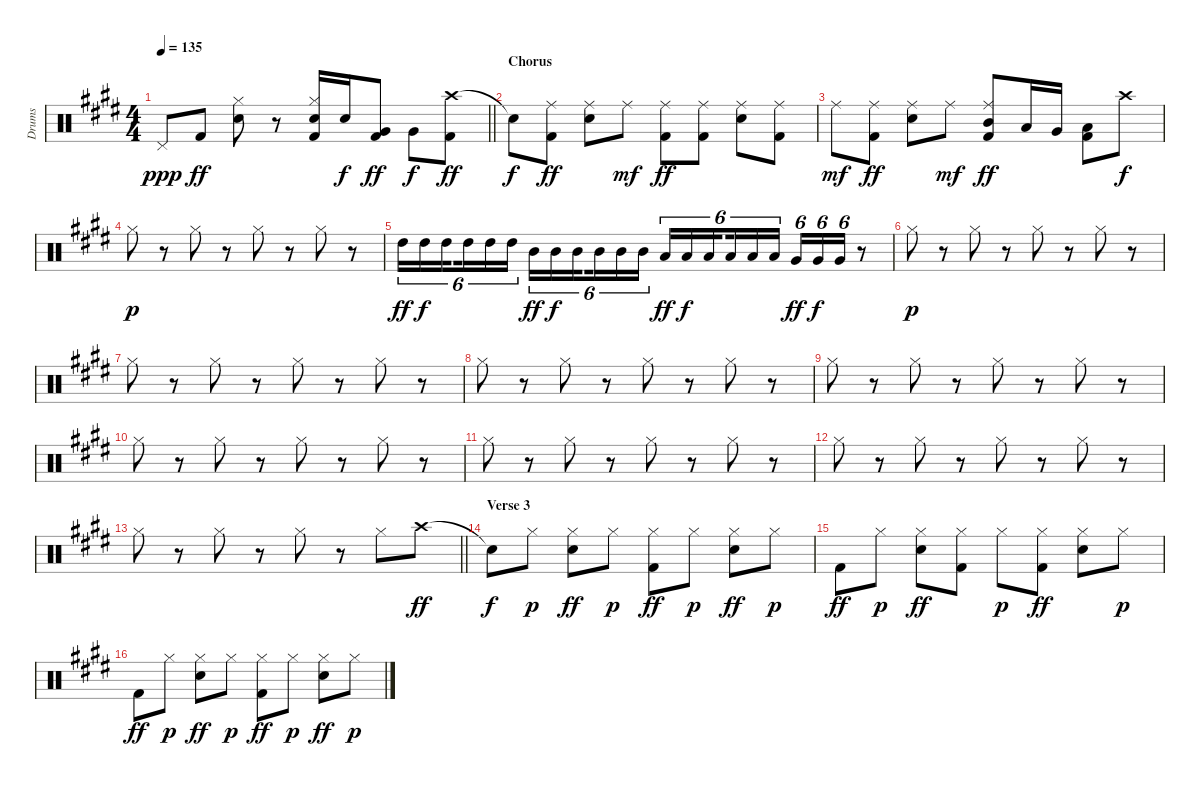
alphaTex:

\track ("Drums" "Drums") {instrument percussion}
\staff {score}
\articulation defaults
\ts (4 4)
\tempo 135
\clef neutral
\barLineRight lightlight
\ks e "Pedal Hi-Hat (hit)".8{dy ppp} "Kick (hit) 2".8{dy ff}
("Hi-Hat (closed)" "Snare (hit) 2").8 r.8 ("Hi-Hat (closed)" "Snare (hit) 2" "Kick (hit) 2").16 "Snare (hit) 2".16{dy f} ("Very Low Tom (hit)" "Kick (hit) 2").8{dy ff} "Very Low Tom (hit)".8{dy f} ("Crash high (hit)" "Kick (hit) 2").8{dy ff} |
\section ("" "Chorus")
"Snare (hit)"{t}.8{dy f} ("Ride (middle)" "Kick (hit) 2").8{dy ff} ("Ride (middle)" "Snare (hit) 2").8 "Ride (middle)".8{dy mf} ("Ride (middle)" "Kick (hit) 2").8{dy ff} ("Ride (middle)" "Kick (hit) 2").8 ("Ride (middle)" "Snare (hit) 2").8 ("Ride (middle)" "Kick (hit) 2").8 |
"Ride (middle)".8{dy mf} ("Ride (middle)" "Kick (hit) 2").8{dy ff} ("Ride (middle)" "Snare (hit) 2").8 "Ride (middle)".8{dy mf} ("Ride (middle)" "Mid Tom (hit)" "Kick (hit) 2").8{dy ff} "Low Tom (hit)".16 "Very Low Tom (hit)".16 ("Low Floor Tom (hit)" "Kick (hit) 2").8 "Crash high (hit)".8{dy f} |
"Hi-Hat (closed)".8{dy p} r.8 "Hi-Hat (closed)".8 r.8 "Hi-Hat (closed)".8 r.8 "Hi-Hat (closed)".8 r.8 |
"High Tom (hit)".16{tu (6 4) dy ff} "High Tom (hit)".16{tu (6 4) dy f} "High Tom (hit)".16{tu (6 4) beam splitsecondary} "High Tom (hit)".16{tu (6 4)} "High Tom (hit)".16{tu (6 4)} "High Tom (hit)".16{tu (6 4)} "Mid Tom (hit)".16{tu (6 4) dy ff} "Mid Tom (hit)".16{tu (6 4) dy f} "Mid Tom (hit)".16{tu (6 4) beam splitsecondary} "Mid Tom (hit)".16{tu (6 4)} "Mid Tom (hit)".16{tu (6 4)} "Mid Tom (hit)".16{tu (6 4)} "Low Tom (hit)".16{tu (6 4) dy ff} "Low Tom (hit)".16{tu (6 4) dy f} "Low Tom (hit)".16{tu (6 4) beam splitsecondary} "Low Tom (hit)".16{tu (6 4)} "Low Tom (hit)".16{tu (6 4)} "Low Tom (hit)".16{tu (6 4)} "Very Low Tom (hit)".16{tu (6 4) dy ff} "Very Low Tom (hit)".16{tu (6 4) dy f} "Very Low Tom (hit)".16{tu (6 4)} r.8 |
"Hi-Hat (closed)".8{dy p} r.8 "Hi-Hat (closed)".8 r.8 "Hi-Hat (closed)".8 r.8 "Hi-Hat (closed)".8 r.8 |
"Hi-Hat (closed)".8 r.8 "Hi-Hat (closed)".8 r.8 "Hi-Hat (closed)".8 r.8 "Hi-Hat (closed)".8 r.8 |
"Hi-Hat (closed)".8 r.8 "Hi-Hat (closed)".8 r.8 "Hi-Hat (closed)".8 r.8 "Hi-Hat (closed)".8 r.8 |
"Hi-Hat (closed)".8 r.8 "Hi-Hat (closed)".8 r.8 "Hi-Hat (closed)".8 r.8 "Hi-Hat (closed)".8 r.8 |
"Hi-Hat (closed)".8 r.8 "Hi-Hat (closed)".8 r.8 "Hi-Hat (closed)".8 r.8 "Hi-Hat (closed)".8 r.8 |
"Hi-Hat (closed)".8 r.8 "Hi-Hat (closed)".8 r.8 "Hi-Hat (closed)".8 r.8 "Hi-Hat (closed)".8 r.8 |
"Hi-Hat (closed)".8 r.8 "Hi-Hat (closed)".8 r.8 "Hi-Hat (closed)".8 r.8 "Hi-Hat (closed)".8 r.8 |
\barLineRight lightlight "Hi-Hat (closed)".8
r.8 "Hi-Hat (closed)".8 r.8 "Hi-Hat (closed)".8 r.8 "Hi-Hat (closed)".8 "Crash high (hit)".8{dy ff} |
\section ("" "Verse 3")
"Snare (hit)"{t}.8{dy f} "Hi-Hat (closed)".8{dy p} ("Hi-Hat (closed)" "Snare (hit) 2").8{dy ff} "Hi-Hat (closed)".8{dy p} ("Hi-Hat (closed)" "Kick (hit) 2").8{dy ff} "Hi-Hat (closed)".8{dy p} ("Hi-Hat (closed)" "Snare (hit) 2").8{dy ff} "Hi-Hat (closed)".8{dy p} |
"Kick (hit) 2".8{dy ff} "Hi-Hat (closed)".8{dy p} ("Hi-Hat (closed)" "Snare (hit) 2").8{dy ff} ("Hi-Hat (closed)" "Kick (hit) 2").8 "Hi-Hat (closed)".8{dy p} ("Hi-Hat (closed)" "Kick (hit) 2").8{dy ff} ("Hi-Hat (closed)" "Snare (hit) 2").8 "Hi-Hat (closed)".8{dy p} |
"Kick (hit) 2".8{dy ff} "Hi-Hat (closed)".8{dy p} ("Hi-Hat (closed)" "Snare (hit) 2").8{dy ff} "Hi-Hat (closed)".8{dy p} ("Hi-Hat (closed)" "Kick (hit) 2").8{dy ff} "Hi-Hat (closed)".8{dy p} ("Hi-Hat (closed)" "Snare (hit) 2").8{dy ff} "Hi-Hat (closed)".8{dy p}
